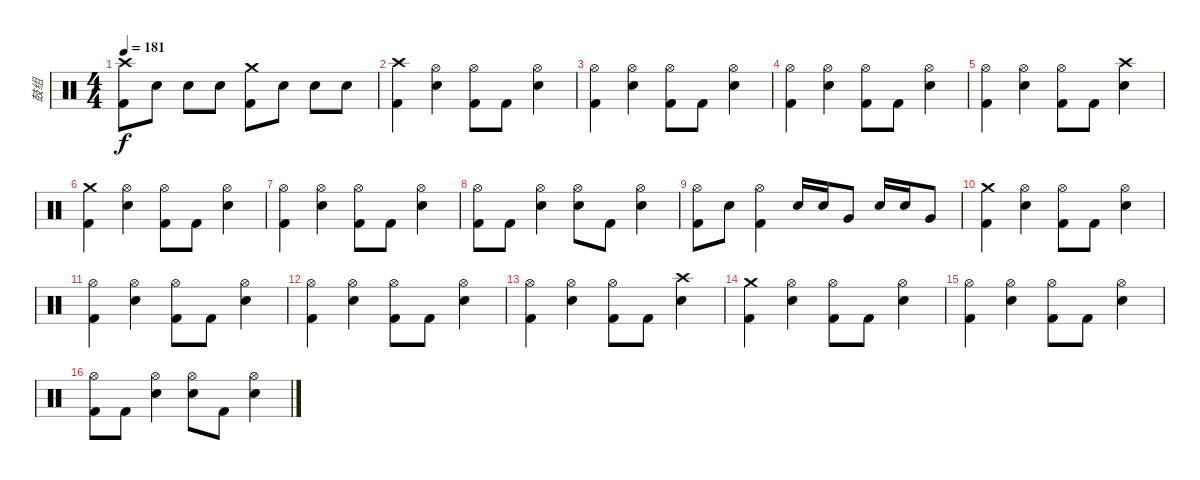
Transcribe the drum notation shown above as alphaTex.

\track ("鼓组" "鼓组") {instrument percussion}
\staff {score}
\articulation defaults
\ts (4 4)
\tempo 181
\clef neutral
\ks c
("Crash high (hit)" "Kick (hit) 2").8{dy f} "Snare (hit) 2".8 "Snare (hit) 2".8 "Snare (hit) 2".8 ("Crash medium (hit)" "Kick (hit) 2").8 "Snare (hit) 2".8 "Snare (hit) 2".8 "Snare (hit) 2".8 |
("Crash high (hit)" "Kick (hit) 2").4 ("Hi-Hat (open)" "Snare (hit) 2").4 ("Hi-Hat (open)" "Kick (hit) 2").8 "Kick (hit) 2".8 ("Hi-Hat (open)" "Snare (hit) 2").4 |
("Hi-Hat (open)" "Kick (hit) 2").4 ("Hi-Hat (open)" "Snare (hit) 2").4 ("Hi-Hat (open)" "Kick (hit) 2").8 "Kick (hit) 2".8 ("Hi-Hat (open)" "Snare (hit) 2").4 |
("Hi-Hat (open)" "Kick (hit) 2").4 ("Hi-Hat (open)" "Snare (hit) 2").4 ("Hi-Hat (open)" "Kick (hit) 2").8 "Kick (hit) 2".8 ("Hi-Hat (open)" "Snare (hit) 2").4 |
("Hi-Hat (open)" "Kick (hit) 2").4 ("Hi-Hat (open)" "Snare (hit) 2").4 ("Hi-Hat (open)" "Kick (hit) 2").8 "Kick (hit) 2".8 ("Crash high (hit)" "Snare (hit) 2").4 |
("Crash medium (hit)" "Kick (hit) 2").4 ("Hi-Hat (open)" "Snare (hit) 2").4 ("Hi-Hat (open)" "Kick (hit) 2").8 "Kick (hit) 2".8 ("Hi-Hat (open)" "Snare (hit) 2").4 |
("Hi-Hat (open)" "Kick (hit) 2").4 ("Hi-Hat (open)" "Snare (hit) 2").4 ("Hi-Hat (open)" "Kick (hit) 2").8 "Kick (hit) 2".8 ("Hi-Hat (open)" "Snare (hit) 2").4 |
("Hi-Hat (open)" "Kick (hit) 2").8 "Kick (hit) 2".8 ("Hi-Hat (open)" "Snare (hit) 2").4 ("Hi-Hat (open)" "Snare (hit) 2").8 "Kick (hit) 2".8 ("Hi-Hat (open)" "Snare (hit) 2").4 |
("Hi-Hat (open)" "Kick (hit) 2").8 "Snare (hit) 2".8 ("Hi-Hat (open)" "Kick (hit) 2").4 "Snare (hit) 2".16 "Snare (hit) 2".16 "Very Low Tom (hit)".8 "Snare (hit) 2".16 "Snare (hit) 2".16 "Very Low Tom (hit)".8 |
("Crash medium (hit)" "Kick (hit) 2").4 ("Hi-Hat (open)" "Snare (hit) 2").4 ("Hi-Hat (open)" "Kick (hit) 2").8 "Kick (hit) 2".8 ("Hi-Hat (open)" "Snare (hit) 2").4 |
("Hi-Hat (open)" "Kick (hit) 2").4 ("Hi-Hat (open)" "Snare (hit) 2").4 ("Hi-Hat (open)" "Kick (hit) 2").8 "Kick (hit) 2".8 ("Hi-Hat (open)" "Snare (hit) 2").4 |
("Hi-Hat (open)" "Kick (hit) 2").4 ("Hi-Hat (open)" "Snare (hit) 2").4 ("Hi-Hat (open)" "Kick (hit) 2").8 "Kick (hit) 2".8 ("Hi-Hat (open)" "Snare (hit) 2").4 |
("Hi-Hat (open)" "Kick (hit) 2").4 ("Hi-Hat (open)" "Snare (hit) 2").4 ("Hi-Hat (open)" "Kick (hit) 2").8 "Kick (hit) 2".8 ("Crash high (hit)" "Snare (hit) 2").4 |
("Crash medium (hit)" "Kick (hit) 2").4 ("Hi-Hat (open)" "Snare (hit) 2").4 ("Hi-Hat (open)" "Kick (hit) 2").8 "Kick (hit) 2".8 ("Hi-Hat (open)" "Snare (hit) 2").4 |
("Hi-Hat (open)" "Kick (hit) 2").4 ("Hi-Hat (open)" "Snare (hit) 2").4 ("Hi-Hat (open)" "Kick (hit) 2").8 "Kick (hit) 2".8 ("Hi-Hat (open)" "Snare (hit) 2").4 |
("Hi-Hat (open)" "Kick (hit) 2").8 "Kick (hit) 2".8 ("Hi-Hat (open)" "Snare (hit) 2").4 ("Hi-Hat (open)" "Snare (hit) 2").8 "Kick (hit) 2".8 ("Hi-Hat (open)" "Snare (hit) 2").4
